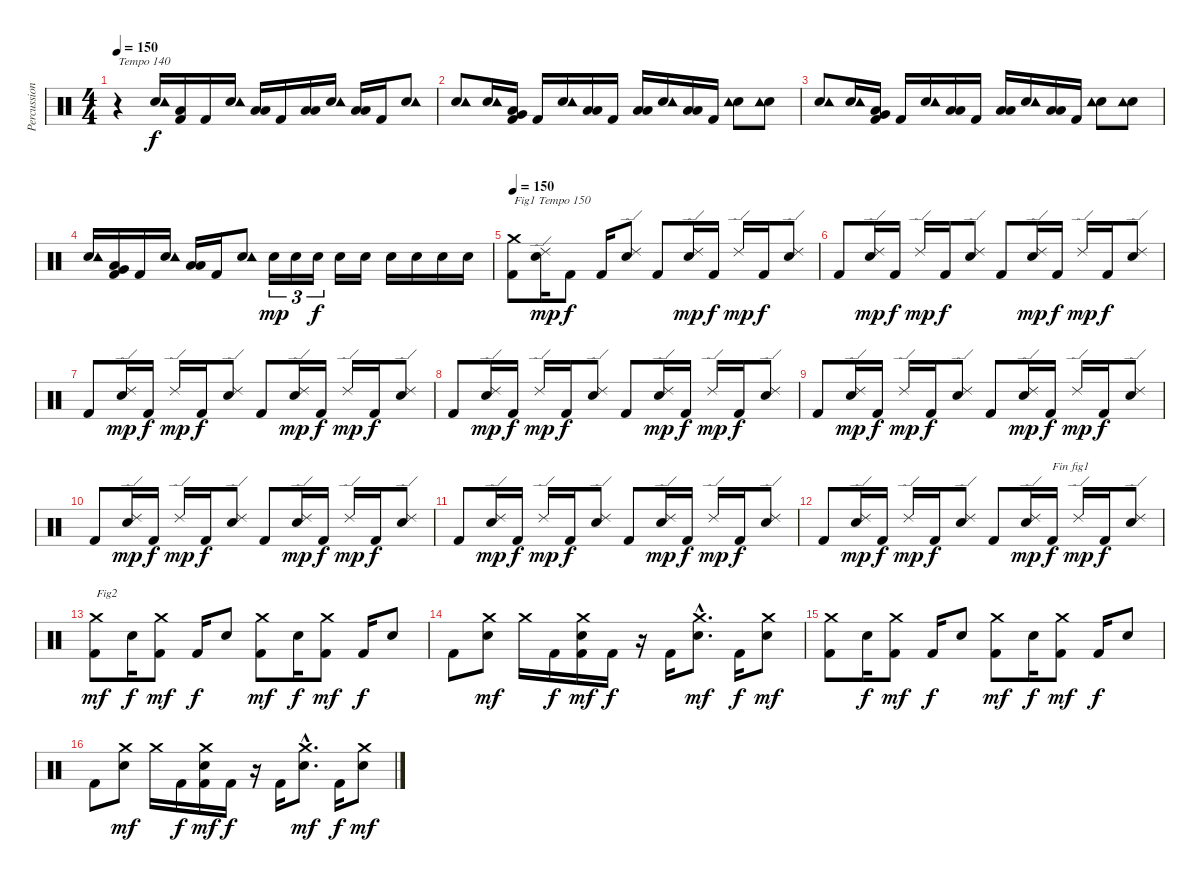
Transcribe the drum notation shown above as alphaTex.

\track ("Percussions" "Percussion") {instrument percussion}
\staff {score}
\articulation defaults
\ts (4 4)
\tempo 150
\tempo 140
\tempo 150
\clef neutral
\ks c
r.4{txt "Tempo 140" dy f} ("Snare (hit) 2" "Tambourine (hit)").16 ("Kick (hit) 2" "Low Floor Tom (hit)").16 "Kick (hit) 2".16 ("Snare (hit) 2" "Tambourine (hit)").16 ("Low Floor Tom (hit)" "Low Tom (hit)").16 "Kick (hit) 2".16 ("Low Floor Tom (hit)" "Low Tom (hit)").16 ("Snare (hit) 2" "Tambourine (hit)").16 ("Low Floor Tom (hit)" "Low Tom (hit)").16 "Kick (hit) 2".16 ("Snare (hit) 2" "Tambourine (hit)").8 |
("Snare (hit) 2" "Tambourine (hit)").8 ("Snare (hit) 2" "Tambourine (hit)").16 ("Kick (hit) 2" "Low Floor Tom (hit)" "Very Low Tom (hit)").16 "Kick (hit) 2".16 ("Snare (hit) 2" "Tambourine (hit)").16 ("Low Floor Tom (hit)" "Low Tom (hit)").16 "Kick (hit) 2".16 ("Low Floor Tom (hit)" "Low Tom (hit)").16 ("Snare (hit) 2" "Tambourine (hit)").16 ("Low Floor Tom (hit)" "Low Tom (hit)").16 "Kick (hit) 2".16 ("Snare (hit) 2" "Tambourine (hit)").8 ("Snare (hit) 2" "Tambourine (hit)").8 |
("Snare (hit) 2" "Tambourine (hit)").8 ("Snare (hit) 2" "Tambourine (hit)").16 ("Kick (hit) 2" "Low Floor Tom (hit)" "Very Low Tom (hit)").16 "Kick (hit) 2".16 ("Snare (hit) 2" "Tambourine (hit)").16 ("Low Floor Tom (hit)" "Low Tom (hit)").16 "Kick (hit) 2".16 ("Low Floor Tom (hit)" "Low Tom (hit)").16 ("Snare (hit) 2" "Tambourine (hit)").16 ("Low Floor Tom (hit)" "Low Tom (hit)").16 "Kick (hit) 2".16 ("Snare (hit) 2" "Tambourine (hit)").8 ("Snare (hit) 2" "Tambourine (hit)").8 |
("Snare (hit) 2" "Tambourine (hit)").16 ("Kick (hit) 2" "Low Floor Tom (hit)" "Very Low Tom (hit)").16 "Kick (hit) 2".16 ("Snare (hit) 2" "Tambourine (hit)").16 ("Low Floor Tom (hit)" "Low Tom (hit)").16 "Kick (hit) 2".16 ("Snare (hit) 2" "Tambourine (hit)").8 "Snare (hit) 2".16{tu (3 2) dy mp} "Snare (hit) 2".16{tu (3 2)} "Snare (hit) 2".16{tu (3 2) dy f} "Snare (hit) 2".16 "Snare (hit) 2".16 "Snare (hit) 2".16 "Snare (hit) 2".16 "Snare (hit) 2".16 "Snare (hit) 2".16 |
\tempo 150
("Kick (hit) 2" "Crash medium (hit)").8{txt "Fig1 Tempo 150"} ("Electric Snare (hit)" "Ride (edge) 2").16{dy mp} "Kick (hit) 2".8{dy f} "Kick (hit) 2".16 ("Electric Snare (hit)" "Ride (edge) 2").8 "Kick (hit) 2".8 ("Electric Snare (hit)" "Ride (edge) 2").16{dy mp} "Kick (hit) 2".16{dy f} "Ride (edge) 2".16{dy mp} "Kick (hit) 2".16{dy f} ("Electric Snare (hit)" "Ride (edge) 2").8 |
"Kick (hit) 2".8 ("Electric Snare (hit)" "Ride (edge) 2").16{dy mp} "Kick (hit) 2".16{dy f} "Ride (edge) 2".16{dy mp} "Kick (hit) 2".16{dy f} ("Electric Snare (hit)" "Ride (edge) 2").8 "Kick (hit) 2".8 ("Electric Snare (hit)" "Ride (edge) 2").16{dy mp} "Kick (hit) 2".16{dy f} "Ride (edge) 2".16{dy mp} "Kick (hit) 2".16{dy f} ("Electric Snare (hit)" "Ride (edge) 2").8 |
"Kick (hit) 2".8 ("Electric Snare (hit)" "Ride (edge) 2").16{dy mp} "Kick (hit) 2".16{dy f} "Ride (edge) 2".16{dy mp} "Kick (hit) 2".16{dy f} ("Electric Snare (hit)" "Ride (edge) 2").8 "Kick (hit) 2".8 ("Electric Snare (hit)" "Ride (edge) 2").16{dy mp} "Kick (hit) 2".16{dy f} "Ride (edge) 2".16{dy mp} "Kick (hit) 2".16{dy f} ("Electric Snare (hit)" "Ride (edge) 2").8 |
"Kick (hit) 2".8 ("Electric Snare (hit)" "Ride (edge) 2").16{dy mp} "Kick (hit) 2".16{dy f} "Ride (edge) 2".16{dy mp} "Kick (hit) 2".16{dy f} ("Electric Snare (hit)" "Ride (edge) 2").8 "Kick (hit) 2".8 ("Electric Snare (hit)" "Ride (edge) 2").16{dy mp} "Kick (hit) 2".16{dy f} "Ride (edge) 2".16{dy mp} "Kick (hit) 2".16{dy f} ("Electric Snare (hit)" "Ride (edge) 2").8 |
"Kick (hit) 2".8 ("Electric Snare (hit)" "Ride (edge) 2").16{dy mp} "Kick (hit) 2".16{dy f} "Ride (edge) 2".16{dy mp} "Kick (hit) 2".16{dy f} ("Electric Snare (hit)" "Ride (edge) 2").8 "Kick (hit) 2".8 ("Electric Snare (hit)" "Ride (edge) 2").16{dy mp} "Kick (hit) 2".16{dy f} "Ride (edge) 2".16{dy mp} "Kick (hit) 2".16{dy f} ("Electric Snare (hit)" "Ride (edge) 2").8 |
"Kick (hit) 2".8 ("Electric Snare (hit)" "Ride (edge) 2").16{dy mp} "Kick (hit) 2".16{dy f} "Ride (edge) 2".16{dy mp} "Kick (hit) 2".16{dy f} ("Electric Snare (hit)" "Ride (edge) 2").8 "Kick (hit) 2".8 ("Electric Snare (hit)" "Ride (edge) 2").16{dy mp} "Kick (hit) 2".16{dy f} "Ride (edge) 2".16{dy mp} "Kick (hit) 2".16{dy f} ("Electric Snare (hit)" "Ride (edge) 2").8 |
"Kick (hit) 2".8 ("Electric Snare (hit)" "Ride (edge) 2").16{dy mp} "Kick (hit) 2".16{dy f} "Ride (edge) 2".16{dy mp} "Kick (hit) 2".16{dy f} ("Electric Snare (hit)" "Ride (edge) 2").8 "Kick (hit) 2".8 ("Electric Snare (hit)" "Ride (edge) 2").16{dy mp} "Kick (hit) 2".16{dy f} "Ride (edge) 2".16{dy mp} "Kick (hit) 2".16{dy f} ("Electric Snare (hit)" "Ride (edge) 2").8 |
"Kick (hit) 2".8 ("Electric Snare (hit)" "Ride (edge) 2").16{dy mp} "Kick (hit) 2".16{dy f} "Ride (edge) 2".16{dy mp} "Kick (hit) 2".16{dy f} ("Electric Snare (hit)" "Ride (edge) 2").8 "Kick (hit) 2".8 ("Electric Snare (hit)" "Ride (edge) 2").16{dy mp} "Kick (hit) 2".16{txt "Fin fig1" dy f} "Ride (edge) 2".16{dy mp} "Kick (hit) 2".16{dy f} ("Electric Snare (hit)" "Ride (edge) 2").8 |
("Kick (hit) 2" "Crash medium (hit)").8{txt "Fig2" dy mf} "Electric Snare (hit)".16{dy f} ("Kick (hit) 2" "Crash medium (hit)").8{dy mf} "Kick (hit) 2".16{dy f} "Electric Snare (hit)".8 ("Kick (hit) 2" "Crash medium (hit)").8{dy mf} "Electric Snare (hit)".16{dy f} ("Kick (hit) 2" "Crash medium (hit)").8{dy mf} "Kick (hit) 2".16{dy f} "Electric Snare (hit)".8 |
"Kick (hit) 2".8 ("Electric Snare (hit)" "Crash medium (hit)").8{dy mf} "Crash medium (hit)".16 "Kick (hit) 2".16{dy f} ("Kick (hit) 2" "Electric Snare (hit)" "Crash medium (hit)").16{dy mf} "Kick (hit) 2".16{dy f} r.16 "Kick (hit) 2".16 ("Electric Snare (hit)"{hac} "Crash medium (hit)"{hac}).8{d dy mf} "Kick (hit) 2".16{dy f} ("Electric Snare (hit)" "Crash medium (hit)").8{dy mf} |
("Kick (hit) 2" "Crash medium (hit)").8 "Electric Snare (hit)".16{dy f} ("Kick (hit) 2" "Crash medium (hit)").8{dy mf} "Kick (hit) 2".16{dy f} "Electric Snare (hit)".8 ("Kick (hit) 2" "Crash medium (hit)").8{dy mf} "Electric Snare (hit)".16{dy f} ("Kick (hit) 2" "Crash medium (hit)").8{dy mf} "Kick (hit) 2".16{dy f} "Electric Snare (hit)".8 |
"Kick (hit) 2".8 ("Electric Snare (hit)" "Crash medium (hit)").8{dy mf} "Crash medium (hit)".16 "Kick (hit) 2".16{dy f} ("Kick (hit) 2" "Electric Snare (hit)" "Crash medium (hit)").16{dy mf} "Kick (hit) 2".16{dy f} r.16 "Kick (hit) 2".16 ("Electric Snare (hit)"{hac} "Crash medium (hit)"{hac}).8{d dy mf} "Kick (hit) 2".16{dy f} ("Electric Snare (hit)" "Crash medium (hit)").8{dy mf}
